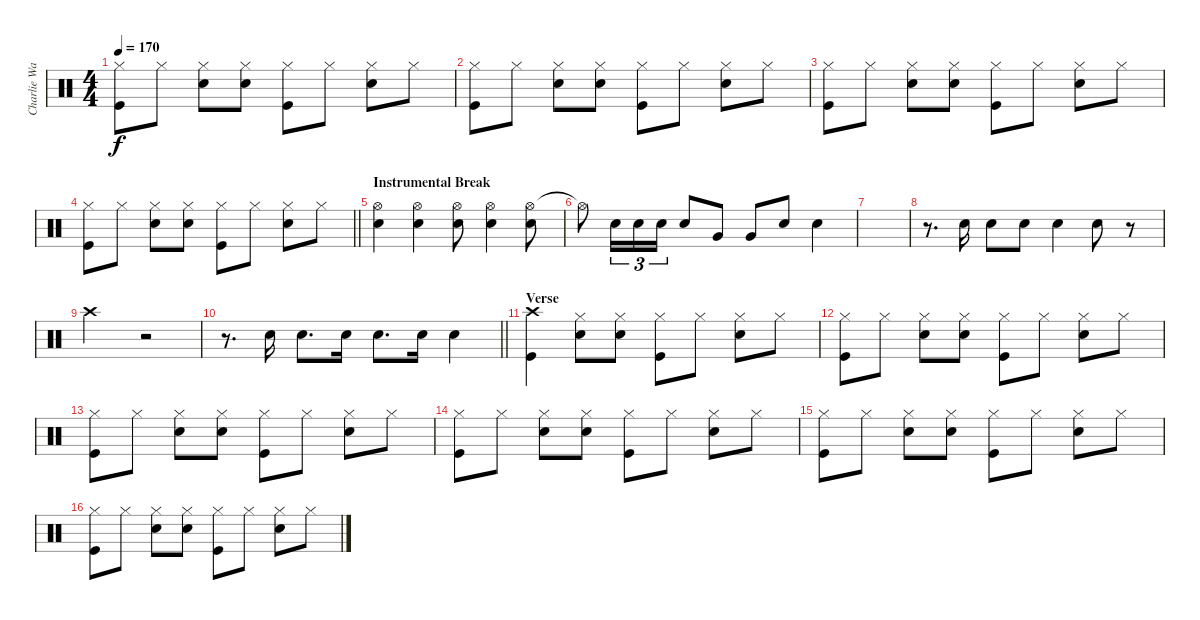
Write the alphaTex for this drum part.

\track ("Charlie Watts" "Charlie Wa") {instrument percussion}
\staff {score}
\articulation defaults
\ts (4 4)
\tempo 170
\clef neutral
\ks c
("Hi-Hat (closed)" "Kick (hit)").8{dy f} "Hi-Hat (closed)".8 ("Hi-Hat (closed)" "Snare (hit) 2").8 ("Hi-Hat (closed)" "Snare (hit) 2").8 ("Hi-Hat (closed)" "Kick (hit)").8 "Hi-Hat (closed)".8 ("Hi-Hat (closed)" "Snare (hit) 2").8 "Hi-Hat (closed)".8 |
("Hi-Hat (closed)" "Kick (hit)").8 "Hi-Hat (closed)".8 ("Hi-Hat (closed)" "Snare (hit) 2").8 ("Hi-Hat (closed)" "Snare (hit) 2").8 ("Hi-Hat (closed)" "Kick (hit)").8 "Hi-Hat (closed)".8 ("Hi-Hat (closed)" "Snare (hit) 2").8 "Hi-Hat (closed)".8 |
("Hi-Hat (closed)" "Kick (hit)").8 "Hi-Hat (closed)".8 ("Hi-Hat (closed)" "Snare (hit) 2").8 ("Hi-Hat (closed)" "Snare (hit) 2").8 ("Hi-Hat (closed)" "Kick (hit)").8 "Hi-Hat (closed)".8 ("Hi-Hat (closed)" "Snare (hit) 2").8 "Hi-Hat (closed)".8 |
\barLineRight lightlight
("Hi-Hat (closed)" "Kick (hit)").8 "Hi-Hat (closed)".8 ("Hi-Hat (closed)" "Snare (hit) 2").8 ("Hi-Hat (closed)" "Snare (hit) 2").8 ("Hi-Hat (closed)" "Kick (hit)").8 "Hi-Hat (closed)".8 ("Hi-Hat (closed)" "Snare (hit) 2").8 "Hi-Hat (closed)".8 |
\section ("" "Instrumental Break")
("Hi-Hat (open)" "Snare (hit) 2").4 ("Hi-Hat (open)" "Snare (hit) 2").4 ("Hi-Hat (open)" "Snare (hit) 2").8 ("Hi-Hat (open)" "Snare (hit) 2").4 ("Hi-Hat (open)" "Snare (hit) 2").8 |
"Hi-Hat (open)"{t}.8 "Snare (hit) 2".16{tu (3 2)} "Snare (hit) 2".16{tu (3 2)} "Snare (hit) 2".16{tu (3 2)} "Snare (hit) 2".8 "Very Low Tom (hit)".8 "Very Low Tom (hit)".8 "Snare (hit) 2".8 "Snare (hit) 2".4 |
|
r.8{d} "Snare (hit) 2".16 "Snare (hit) 2".8 "Snare (hit) 2".8 "Snare (hit) 2".4 "Snare (hit) 2".8 r.8 |
"Crash high (hit)".2 r.2 |
\barLineRight lightlight
r.8{d} "Snare (hit) 2".16 "Snare (hit) 2".8{d} "Snare (hit) 2".16 "Snare (hit) 2".8{d} "Snare (hit) 2".16 "Snare (hit) 2".4 |
\section ("" "Verse")
("Crash high (hit)" "Kick (hit)").4 ("Hi-Hat (closed)" "Snare (hit) 2").8 ("Hi-Hat (closed)" "Snare (hit) 2").8 ("Hi-Hat (closed)" "Kick (hit)").8 "Hi-Hat (closed)".8 ("Hi-Hat (closed)" "Snare (hit) 2").8 "Hi-Hat (closed)".8 |
("Hi-Hat (closed)" "Kick (hit)").8 "Hi-Hat (closed)".8 ("Hi-Hat (closed)" "Snare (hit) 2").8 ("Hi-Hat (closed)" "Snare (hit) 2").8 ("Hi-Hat (closed)" "Kick (hit)").8 "Hi-Hat (closed)".8 ("Hi-Hat (closed)" "Snare (hit) 2").8 "Hi-Hat (closed)".8 |
("Hi-Hat (closed)" "Kick (hit)").8 "Hi-Hat (closed)".8 ("Hi-Hat (closed)" "Snare (hit) 2").8 ("Hi-Hat (closed)" "Snare (hit) 2").8 ("Hi-Hat (closed)" "Kick (hit)").8 "Hi-Hat (closed)".8 ("Hi-Hat (closed)" "Snare (hit) 2").8 "Hi-Hat (closed)".8 |
("Hi-Hat (closed)" "Kick (hit)").8 "Hi-Hat (closed)".8 ("Hi-Hat (closed)" "Snare (hit) 2").8 ("Hi-Hat (closed)" "Snare (hit) 2").8 ("Hi-Hat (closed)" "Kick (hit)").8 "Hi-Hat (closed)".8 ("Hi-Hat (closed)" "Snare (hit) 2").8 "Hi-Hat (closed)".8 |
("Hi-Hat (closed)" "Kick (hit)").8 "Hi-Hat (closed)".8 ("Hi-Hat (closed)" "Snare (hit) 2").8 ("Hi-Hat (closed)" "Snare (hit) 2").8 ("Hi-Hat (closed)" "Kick (hit)").8 "Hi-Hat (closed)".8 ("Hi-Hat (closed)" "Snare (hit) 2").8 "Hi-Hat (closed)".8 |
("Hi-Hat (closed)" "Kick (hit)").8 "Hi-Hat (closed)".8 ("Hi-Hat (closed)" "Snare (hit) 2").8 ("Hi-Hat (closed)" "Snare (hit) 2").8 ("Hi-Hat (closed)" "Kick (hit)").8 "Hi-Hat (closed)".8 ("Hi-Hat (closed)" "Snare (hit) 2").8 "Hi-Hat (closed)".8
